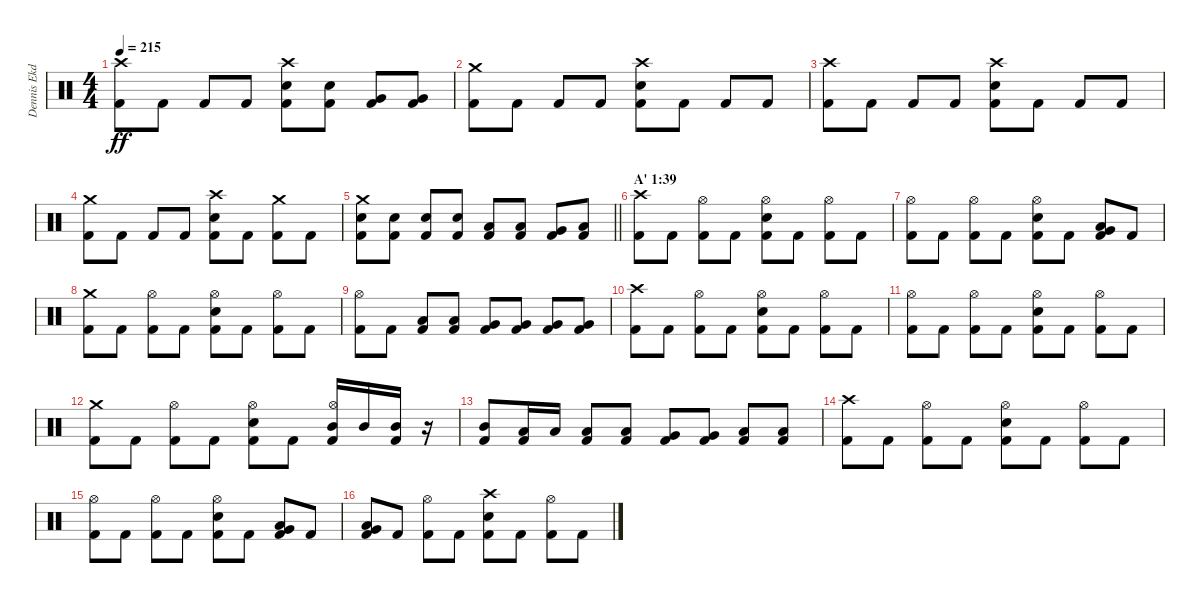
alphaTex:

\track ("Dennis Ekdahl      (Drums)" "Dennis Ekd") {instrument percussion}
\staff {score}
\articulation defaults
\ts (4 4)
\tempo 215
\clef neutral
\ks c
("Crash high (hit)" "Kick (hit) 2").8{dy ff} "Kick (hit) 2".8 "Kick (hit) 2".8 "Kick (hit) 2".8 ("Crash high (hit)" "Electric Snare (hit)" "Kick (hit) 2").8 ("Electric Snare (hit)" "Kick (hit) 2").8 ("Very Low Tom (hit)" "Kick (hit) 2").8 ("Very Low Tom (hit)" "Kick (hit) 2").8 |
("Crash medium (hit)" "Kick (hit) 2").8 "Kick (hit) 2".8 "Kick (hit) 2".8 "Kick (hit) 2".8 ("Crash high (hit)" "Electric Snare (hit)" "Kick (hit) 2").8 "Kick (hit) 2".8 "Kick (hit) 2".8 "Kick (hit) 2".8 |
("Crash high (hit)" "Kick (hit) 2").8 "Kick (hit) 2".8 "Kick (hit) 2".8 "Kick (hit) 2".8 ("Crash high (hit)" "Electric Snare (hit)" "Kick (hit) 2").8 "Kick (hit) 2".8 "Kick (hit) 2".8 "Kick (hit) 2".8 |
("Crash medium (hit)" "Kick (hit) 2").8 "Kick (hit) 2".8 "Kick (hit) 2".8 "Kick (hit) 2".8 ("Crash high (hit)" "Electric Snare (hit)" "Kick (hit) 2").8 "Kick (hit) 2".8 ("Crash medium (hit)" "Kick (hit) 2").8 "Kick (hit) 2".8 |
\barLineRight lightlight
("Crash medium (hit)" "Electric Snare (hit)" "Kick (hit) 2").8 ("Electric Snare (hit)" "Kick (hit) 2").8 ("Electric Snare (hit)" "Kick (hit) 2").8 ("Electric Snare (hit)" "Kick (hit) 2").8 ("Low Tom (hit)" "Kick (hit) 2").8 ("Low Tom (hit)" "Kick (hit) 2").8 ("Very Low Tom (hit)" "Kick (hit) 2").8 ("Low Floor Tom (hit)" "Kick (hit) 2").8 |
\section ("" "A' 1:39")
("Crash high (hit)" "Kick (hit) 2").8 "Kick (hit) 2".8 ("Hi-Hat (open)" "Kick (hit) 2").8 "Kick (hit) 2".8 ("Hi-Hat (open)" "Electric Snare (hit)" "Kick (hit) 2").8 "Kick (hit) 2".8 ("Hi-Hat (open)" "Kick (hit) 2").8 "Kick (hit) 2".8 |
("Hi-Hat (open)" "Kick (hit) 2").8 "Kick (hit) 2".8 ("Hi-Hat (open)" "Kick (hit) 2").8 "Kick (hit) 2".8 ("Hi-Hat (open)" "Electric Snare (hit)" "Kick (hit) 2").8 "Kick (hit) 2".8 ("Very Low Tom (hit)" "Low Tom (hit)" "Kick (hit) 2").8 "Kick (hit) 2".8 |
("Crash medium (hit)" "Kick (hit) 2").8 "Kick (hit) 2".8 ("Hi-Hat (open)" "Kick (hit) 2").8 "Kick (hit) 2".8 ("Hi-Hat (open)" "Electric Snare (hit)" "Kick (hit) 2").8 "Kick (hit) 2".8 ("Hi-Hat (open)" "Kick (hit) 2").8 "Kick (hit) 2".8 |
("Hi-Hat (open)" "Kick (hit) 2").8 "Kick (hit) 2".8 ("Low Tom (hit)" "Kick (hit) 2").8 ("Low Tom (hit)" "Kick (hit) 2").8 ("Very Low Tom (hit)" "Kick (hit) 2").8 ("Very Low Tom (hit)" "Kick (hit) 2").8 ("Very Low Tom (hit)" "Kick (hit) 2").8 ("Very Low Tom (hit)" "Kick (hit) 2").8 |
("Crash high (hit)" "Kick (hit) 2").8 "Kick (hit) 2".8 ("Hi-Hat (open)" "Kick (hit) 2").8 "Kick (hit) 2".8 ("Hi-Hat (open)" "Electric Snare (hit)" "Kick (hit) 2").8 "Kick (hit) 2".8 ("Hi-Hat (open)" "Kick (hit) 2").8 "Kick (hit) 2".8 |
("Hi-Hat (open)" "Kick (hit) 2").8 "Kick (hit) 2".8 ("Hi-Hat (open)" "Kick (hit) 2").8 "Kick (hit) 2".8 ("Hi-Hat (open)" "Electric Snare (hit)" "Kick (hit) 2").8 "Kick (hit) 2".8 ("Hi-Hat (open)" "Kick (hit) 2").8 "Kick (hit) 2".8 |
("Crash medium (hit)" "Kick (hit) 2").8 "Kick (hit) 2".8 ("Hi-Hat (open)" "Kick (hit) 2").8 "Kick (hit) 2".8 ("Hi-Hat (open)" "Electric Snare (hit)" "Kick (hit) 2").8 "Kick (hit) 2".8 ("Hi-Hat (open)" "Mid Tom (hit)" "Kick (hit) 2").16 "Mid Tom (hit)".16 ("Mid Tom (hit)" "Kick (hit) 2").16 r.16 |
("Mid Tom (hit)" "Kick (hit) 2").8 ("Low Tom (hit)" "Kick (hit) 2").16 "Low Tom (hit)".16 ("Low Tom (hit)" "Kick (hit) 2").8 ("Low Tom (hit)" "Kick (hit) 2").8 ("Very Low Tom (hit)" "Kick (hit) 2").8 ("Very Low Tom (hit)" "Kick (hit) 2").8 ("Low Floor Tom (hit)" "Kick (hit) 2").8 ("Low Floor Tom (hit)" "Kick (hit) 2").8 |
("Crash high (hit)" "Kick (hit) 2").8 "Kick (hit) 2".8 ("Hi-Hat (open)" "Kick (hit) 2").8 "Kick (hit) 2".8 ("Hi-Hat (open)" "Electric Snare (hit)" "Kick (hit) 2").8 "Kick (hit) 2".8 ("Hi-Hat (open)" "Kick (hit) 2").8 "Kick (hit) 2".8 |
("Hi-Hat (open)" "Kick (hit) 2").8 "Kick (hit) 2".8 ("Hi-Hat (open)" "Kick (hit) 2").8 "Kick (hit) 2".8 ("Hi-Hat (open)" "Electric Snare (hit)" "Kick (hit) 2").8 "Kick (hit) 2".8 ("Very Low Tom (hit)" "Low Tom (hit)" "Kick (hit) 2").8 "Kick (hit) 2".8 |
("Very Low Tom (hit)" "Low Floor Tom (hit)" "Kick (hit) 2").8 "Kick (hit) 2".8 ("Hi-Hat (open)" "Kick (hit) 2").8 "Kick (hit) 2".8 ("Crash high (hit)" "Electric Snare (hit)" "Kick (hit) 2").8 "Kick (hit) 2".8 ("Hi-Hat (open)" "Kick (hit) 2").8 "Kick (hit) 2".8
